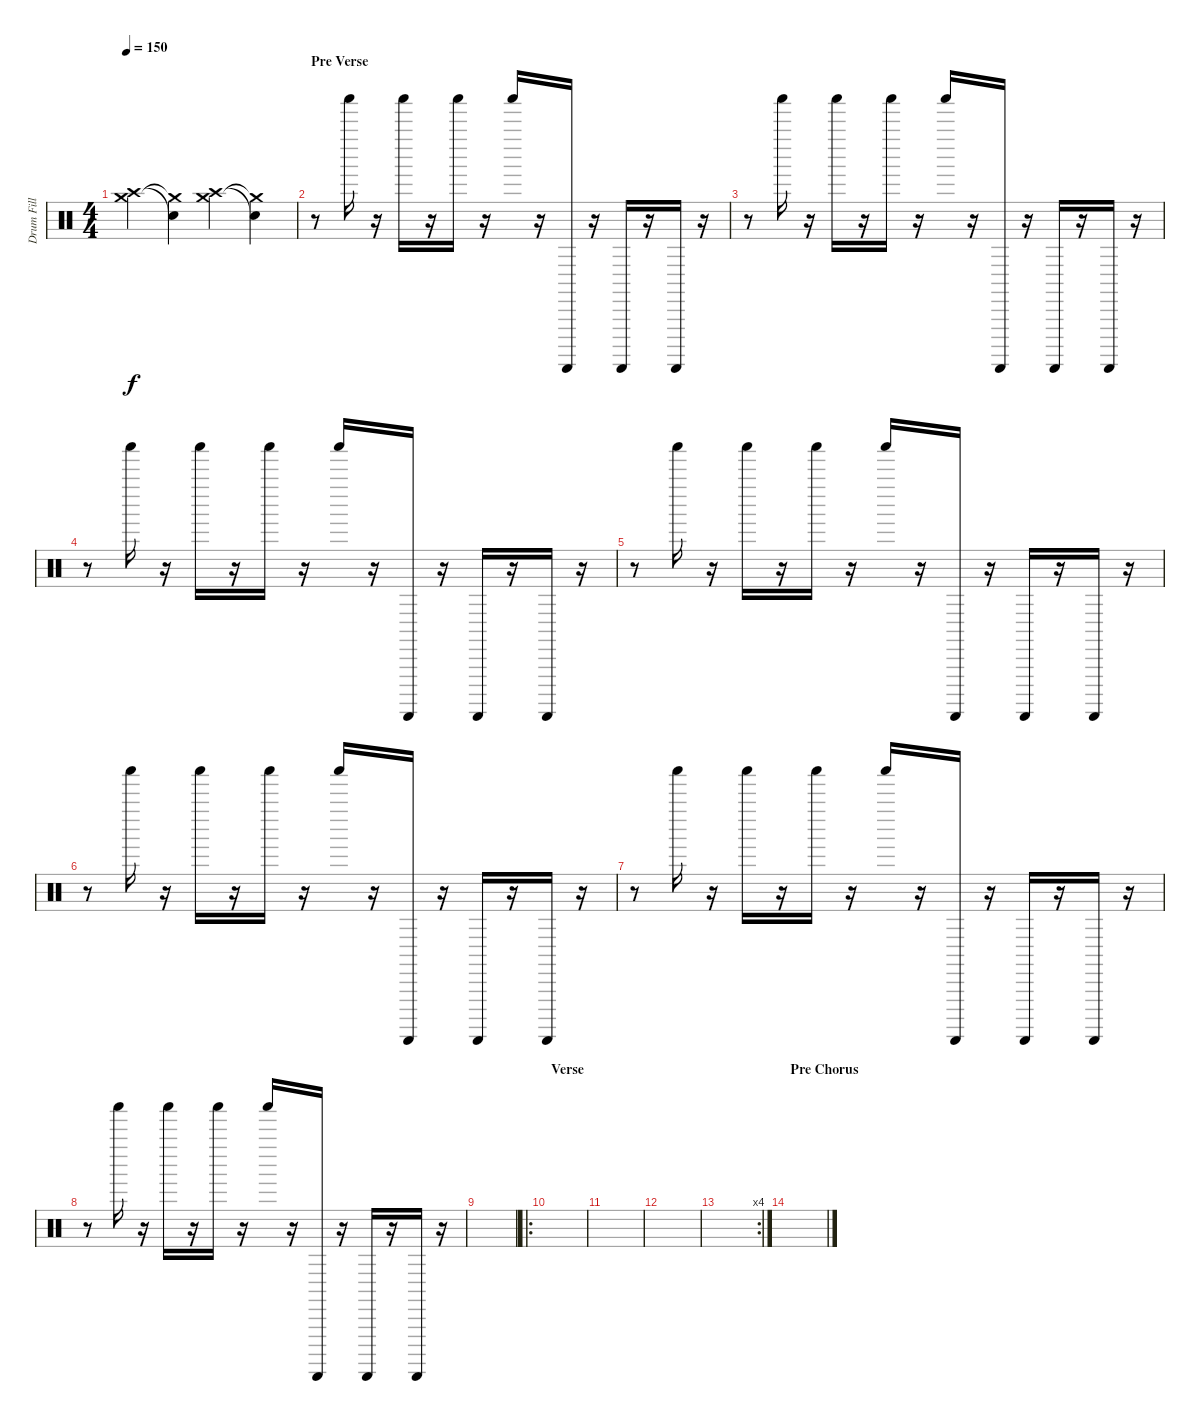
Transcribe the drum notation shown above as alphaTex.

\track ("Drum Fill" "Drum Fill") {instrument percussion}
\staff {score}
\articulation defaults
\ts (4 4)
\tempo 150
\clef neutral
\ks c
("Crash medium (hit)" "Crash high (hit)").4{dy f} ("Crash medium (hit)"{t} "Snare (hit)"{t}).4 ("Crash medium (hit)" "Crash high (hit)").4 ("Crash medium (hit)"{t} "Snare (hit)"{t}).4 |
\section ("" "Pre Verse")
r.8 "Shaker (hit)".16 r.16 "Shaker (hit)".16 r.16 "Shaker (hit)".16 r.16 "Shaker (hit)".16 r.16 "Guiro (scrap-return)".16 r.16 "Guiro (scrap-return)".16 r.16 "Guiro (scrap-return)".16 r.16 |
r.8 "Shaker (hit)".16 r.16 "Shaker (hit)".16 r.16 "Shaker (hit)".16 r.16 "Shaker (hit)".16 r.16 "Guiro (scrap-return)".16 r.16 "Guiro (scrap-return)".16 r.16 "Guiro (scrap-return)".16 r.16 |
r.8 "Shaker (hit)".16 r.16 "Shaker (hit)".16 r.16 "Shaker (hit)".16 r.16 "Shaker (hit)".16 r.16 "Guiro (scrap-return)".16 r.16 "Guiro (scrap-return)".16 r.16 "Guiro (scrap-return)".16 r.16 |
r.8 "Shaker (hit)".16 r.16 "Shaker (hit)".16 r.16 "Shaker (hit)".16 r.16 "Shaker (hit)".16 r.16 "Guiro (scrap-return)".16 r.16 "Guiro (scrap-return)".16 r.16 "Guiro (scrap-return)".16 r.16 |
r.8 "Shaker (hit)".16 r.16 "Shaker (hit)".16 r.16 "Shaker (hit)".16 r.16 "Shaker (hit)".16 r.16 "Guiro (scrap-return)".16 r.16 "Guiro (scrap-return)".16 r.16 "Guiro (scrap-return)".16 r.16 |
r.8 "Shaker (hit)".16 r.16 "Shaker (hit)".16 r.16 "Shaker (hit)".16 r.16 "Shaker (hit)".16 r.16 "Guiro (scrap-return)".16 r.16 "Guiro (scrap-return)".16 r.16 "Guiro (scrap-return)".16 r.16 |
r.8 "Shaker (hit)".16 r.16 "Shaker (hit)".16 r.16 "Shaker (hit)".16 r.16 "Shaker (hit)".16 r.16 "Guiro (scrap-return)".16 r.16 "Guiro (scrap-return)".16 r.16 "Guiro (scrap-return)".16 r.16 |
|
\ro
\section ("" "Verse")
|
|
|
\rc 4
|
\section ("" "Pre Chorus")
